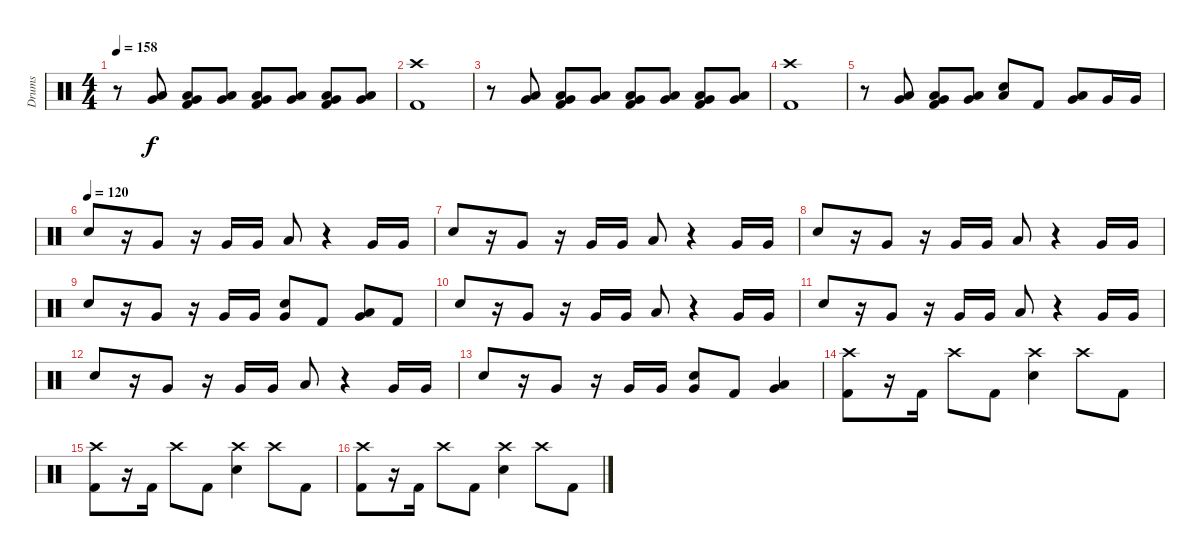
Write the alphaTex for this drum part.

\track ("Drums" "Drums") {instrument percussion}
\staff {score}
\articulation defaults
\ts (4 4)
\tempo 158
\clef neutral
\ks c
r.8{dy f} ("Very Low Tom (hit)" "Low Floor Tom (hit)").8 ("Very Low Tom (hit)" "Low Floor Tom (hit)" "Kick (hit) 2").8 ("Very Low Tom (hit)" "Low Floor Tom (hit)").8 ("Very Low Tom (hit)" "Low Floor Tom (hit)" "Kick (hit) 2").8 ("Very Low Tom (hit)" "Low Floor Tom (hit)").8 ("Very Low Tom (hit)" "Low Floor Tom (hit)" "Kick (hit) 2").8 ("Very Low Tom (hit)" "Low Floor Tom (hit)").8 |
("Crash high (hit)" "Kick (hit) 2").1 |
r.8 ("Very Low Tom (hit)" "Low Floor Tom (hit)").8 ("Very Low Tom (hit)" "Low Floor Tom (hit)" "Kick (hit) 2").8 ("Very Low Tom (hit)" "Low Floor Tom (hit)").8 ("Very Low Tom (hit)" "Low Floor Tom (hit)" "Kick (hit) 2").8 ("Very Low Tom (hit)" "Low Floor Tom (hit)").8 ("Very Low Tom (hit)" "Low Floor Tom (hit)" "Kick (hit) 2").8 ("Very Low Tom (hit)" "Low Floor Tom (hit)").8 |
("Crash high (hit)" "Kick (hit) 2").1 |
r.8 ("Very Low Tom (hit)" "Low Floor Tom (hit)").8 ("Very Low Tom (hit)" "Low Floor Tom (hit)" "Kick (hit) 2").8 ("Very Low Tom (hit)" "Low Floor Tom (hit)").8 ("Electric Snare (hit)" "Low Floor Tom (hit)").8 "Kick (hit) 2".8 ("Very Low Tom (hit)" "Low Floor Tom (hit)").8 "Very Low Tom (hit)".16 "Very Low Tom (hit)".16 |
\tempo (120)
"Electric Snare (hit)".8 r.16 "Very Low Tom (hit)".8 r.16 "Very Low Tom (hit)".16 "Very Low Tom (hit)".16 "Low Floor Tom (hit)".8 r.4 "Very Low Tom (hit)".16 "Very Low Tom (hit)".16 |
"Electric Snare (hit)".8 r.16 "Very Low Tom (hit)".8 r.16 "Very Low Tom (hit)".16 "Very Low Tom (hit)".16 "Low Floor Tom (hit)".8 r.4 "Very Low Tom (hit)".16 "Very Low Tom (hit)".16 |
"Electric Snare (hit)".8 r.16 "Very Low Tom (hit)".8 r.16 "Very Low Tom (hit)".16 "Very Low Tom (hit)".16 "Low Floor Tom (hit)".8 r.4 "Very Low Tom (hit)".16 "Very Low Tom (hit)".16 |
"Electric Snare (hit)".8 r.16 "Very Low Tom (hit)".8 r.16 "Very Low Tom (hit)".16 "Very Low Tom (hit)".16 ("Electric Snare (hit)" "Very Low Tom (hit)").8 "Kick (hit) 2".8 ("Very Low Tom (hit)" "Low Floor Tom (hit)").8 "Kick (hit) 2".8 |
"Electric Snare (hit)".8 r.16 "Very Low Tom (hit)".8 r.16 "Very Low Tom (hit)".16 "Very Low Tom (hit)".16 "Low Floor Tom (hit)".8 r.4 "Very Low Tom (hit)".16 "Very Low Tom (hit)".16 |
"Electric Snare (hit)".8 r.16 "Very Low Tom (hit)".8 r.16 "Very Low Tom (hit)".16 "Very Low Tom (hit)".16 "Low Floor Tom (hit)".8 r.4 "Very Low Tom (hit)".16 "Very Low Tom (hit)".16 |
"Electric Snare (hit)".8 r.16 "Very Low Tom (hit)".8 r.16 "Very Low Tom (hit)".16 "Very Low Tom (hit)".16 "Low Floor Tom (hit)".8 r.4 "Very Low Tom (hit)".16 "Very Low Tom (hit)".16 |
"Electric Snare (hit)".8 r.16 "Very Low Tom (hit)".8 r.16 "Very Low Tom (hit)".16 "Very Low Tom (hit)".16 ("Electric Snare (hit)" "Very Low Tom (hit)").8 "Kick (hit) 2".8 ("Very Low Tom (hit)" "Low Floor Tom (hit)").4 |
("Crash high (hit)" "Kick (hit) 2").8 r.16 "Kick (hit) 2".16 "Crash high (hit)".8 "Kick (hit) 2".8 ("Crash high (hit)" "Electric Snare (hit)").4 "Crash high (hit)".8 "Kick (hit) 2".8 |
("Crash high (hit)" "Kick (hit) 2").8 r.16 "Kick (hit) 2".16 "Crash high (hit)".8 "Kick (hit) 2".8 ("Crash high (hit)" "Electric Snare (hit)").4 "Crash high (hit)".8 "Kick (hit) 2".8 |
("Crash high (hit)" "Kick (hit) 2").8 r.16 "Kick (hit) 2".16 "Crash high (hit)".8 "Kick (hit) 2".8 ("Crash high (hit)" "Electric Snare (hit)").4 "Crash high (hit)".8 "Kick (hit) 2".8
